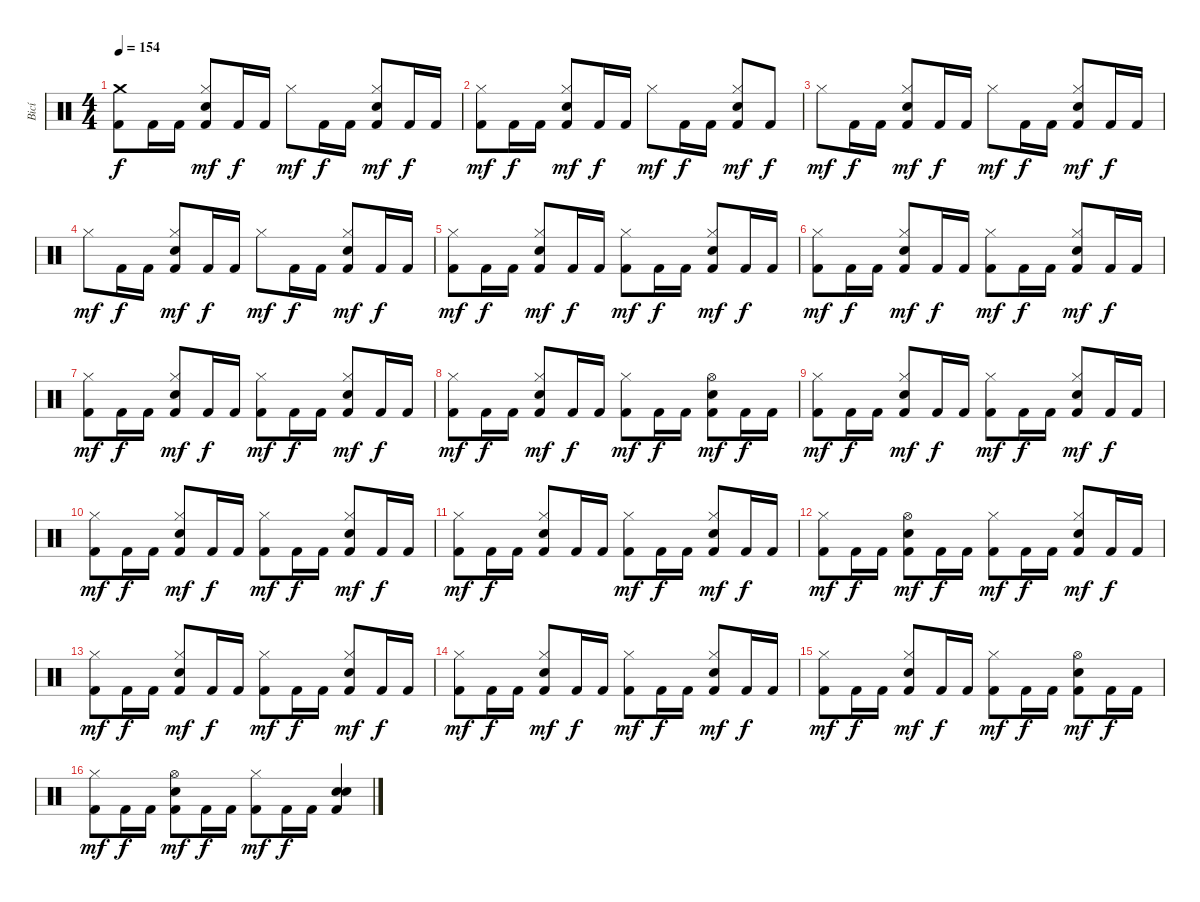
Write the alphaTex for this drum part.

\track ("Bicí" "Bicí") {instrument percussion}
\staff {score}
\articulation defaults
\ts (4 4)
\tempo 154
\clef neutral
\ks c
("Crash medium (hit)" "Kick (hit) 2").8{dy f} "Kick (hit) 2".16 "Kick (hit) 2".16 ("Hi-Hat (closed)" "Kick (hit) 2" "Electric Snare (hit)").8{dy mf} "Kick (hit) 2".16{dy f} "Kick (hit) 2".16 "Hi-Hat (closed)".8{dy mf} "Kick (hit) 2".16{dy f} "Kick (hit) 2".16 ("Hi-Hat (closed)" "Kick (hit) 2" "Electric Snare (hit)").8{dy mf} "Kick (hit) 2".16{dy f} "Kick (hit) 2".16 |
("Hi-Hat (closed)" "Kick (hit) 2").8{dy mf} "Kick (hit) 2".16{dy f} "Kick (hit) 2".16 ("Hi-Hat (closed)" "Kick (hit) 2" "Electric Snare (hit)").8{dy mf} "Kick (hit) 2".16{dy f} "Kick (hit) 2".16 "Hi-Hat (closed)".8{dy mf} "Kick (hit) 2".16{dy f} "Kick (hit) 2".16 ("Hi-Hat (closed)" "Kick (hit) 2" "Electric Snare (hit)").8{dy mf} "Kick (hit) 2".8{dy f} |
"Hi-Hat (closed)".8{dy mf} "Kick (hit) 2".16{dy f} "Kick (hit) 2".16 ("Hi-Hat (closed)" "Kick (hit) 2" "Electric Snare (hit)").8{dy mf} "Kick (hit) 2".16{dy f} "Kick (hit) 2".16 "Hi-Hat (closed)".8{dy mf} "Kick (hit) 2".16{dy f} "Kick (hit) 2".16 ("Hi-Hat (closed)" "Kick (hit) 2" "Electric Snare (hit)").8{dy mf} "Kick (hit) 2".16{dy f} "Kick (hit) 2".16 |
"Hi-Hat (closed)".8{dy mf} "Kick (hit) 2".16{dy f} "Kick (hit) 2".16 ("Hi-Hat (closed)" "Kick (hit) 2" "Electric Snare (hit)").8{dy mf} "Kick (hit) 2".16{dy f} "Kick (hit) 2".16 "Hi-Hat (closed)".8{dy mf} "Kick (hit) 2".16{dy f} "Kick (hit) 2".16 ("Hi-Hat (closed)" "Kick (hit) 2" "Electric Snare (hit)").8{dy mf} "Kick (hit) 2".16{dy f} "Kick (hit) 2".16 |
("Hi-Hat (closed)" "Kick (hit) 2").8{dy mf} "Kick (hit) 2".16{dy f} "Kick (hit) 2".16 ("Hi-Hat (closed)" "Kick (hit) 2" "Electric Snare (hit)").8{dy mf} "Kick (hit) 2".16{dy f} "Kick (hit) 2".16 ("Hi-Hat (closed)" "Kick (hit) 2").8{dy mf} "Kick (hit) 2".16{dy f} "Kick (hit) 2".16 ("Hi-Hat (closed)" "Kick (hit) 2" "Electric Snare (hit)").8{dy mf} "Kick (hit) 2".16{dy f} "Kick (hit) 2".16 |
("Hi-Hat (closed)" "Kick (hit) 2").8{dy mf} "Kick (hit) 2".16{dy f} "Kick (hit) 2".16 ("Hi-Hat (closed)" "Kick (hit) 2" "Electric Snare (hit)").8{dy mf} "Kick (hit) 2".16{dy f} "Kick (hit) 2".16 ("Hi-Hat (closed)" "Kick (hit) 2").8{dy mf} "Kick (hit) 2".16{dy f} "Kick (hit) 2".16 ("Hi-Hat (closed)" "Kick (hit) 2" "Electric Snare (hit)").8{dy mf} "Kick (hit) 2".16{dy f} "Kick (hit) 2".16 |
("Hi-Hat (closed)" "Kick (hit) 2").8{dy mf} "Kick (hit) 2".16{dy f} "Kick (hit) 2".16 ("Hi-Hat (closed)" "Kick (hit) 2" "Electric Snare (hit)").8{dy mf} "Kick (hit) 2".16{dy f} "Kick (hit) 2".16 ("Hi-Hat (closed)" "Kick (hit) 2").8{dy mf} "Kick (hit) 2".16{dy f} "Kick (hit) 2".16 ("Hi-Hat (closed)" "Kick (hit) 2" "Electric Snare (hit)").8{dy mf} "Kick (hit) 2".16{dy f} "Kick (hit) 2".16 |
("Hi-Hat (closed)" "Kick (hit) 2").8{dy mf} "Kick (hit) 2".16{dy f} "Kick (hit) 2".16 ("Hi-Hat (closed)" "Kick (hit) 2" "Electric Snare (hit)").8{dy mf} "Kick (hit) 2".16{dy f} "Kick (hit) 2".16 ("Hi-Hat (closed)" "Kick (hit) 2").8{dy mf} "Kick (hit) 2".16{dy f} "Kick (hit) 2".16 ("Hi-Hat (open)" "Kick (hit) 2" "Electric Snare (hit)").8{dy mf} "Kick (hit) 2".16{dy f} "Kick (hit) 2".16 |
("Hi-Hat (closed)" "Kick (hit) 2").8{dy mf} "Kick (hit) 2".16{dy f} "Kick (hit) 2".16 ("Hi-Hat (closed)" "Kick (hit) 2" "Electric Snare (hit)").8{dy mf} "Kick (hit) 2".16{dy f} "Kick (hit) 2".16 ("Hi-Hat (closed)" "Kick (hit) 2").8{dy mf} "Kick (hit) 2".16{dy f} "Kick (hit) 2".16 ("Hi-Hat (closed)" "Kick (hit) 2" "Electric Snare (hit)").8{dy mf} "Kick (hit) 2".16{dy f} "Kick (hit) 2".16 |
("Hi-Hat (closed)" "Kick (hit) 2").8{dy mf} "Kick (hit) 2".16{dy f} "Kick (hit) 2".16 ("Hi-Hat (closed)" "Kick (hit) 2" "Electric Snare (hit)").8{dy mf} "Kick (hit) 2".16{dy f} "Kick (hit) 2".16 ("Hi-Hat (closed)" "Kick (hit) 2").8{dy mf} "Kick (hit) 2".16{dy f} "Kick (hit) 2".16 ("Hi-Hat (closed)" "Kick (hit) 2" "Electric Snare (hit)").8{dy mf} "Kick (hit) 2".16{dy f} "Kick (hit) 2".16 |
("Hi-Hat (closed)" "Kick (hit) 2").8{dy mf} "Kick (hit) 2".16{dy f} "Kick (hit) 2".16 ("Hi-Hat (closed)" "Kick (hit) 2" "Electric Snare (hit)").8 "Kick (hit) 2".16 "Kick (hit) 2".16 ("Hi-Hat (closed)" "Kick (hit) 2").8{dy mf} "Kick (hit) 2".16{dy f} "Kick (hit) 2".16 ("Hi-Hat (closed)" "Kick (hit) 2" "Electric Snare (hit)").8{dy mf} "Kick (hit) 2".16{dy f} "Kick (hit) 2".16 |
("Hi-Hat (closed)" "Kick (hit) 2").8{dy mf} "Kick (hit) 2".16{dy f} "Kick (hit) 2".16 ("Hi-Hat (open)" "Kick (hit) 2" "Electric Snare (hit)").8{dy mf} "Kick (hit) 2".16{dy f} "Kick (hit) 2".16 ("Hi-Hat (closed)" "Kick (hit) 2").8{dy mf} "Kick (hit) 2".16{dy f} "Kick (hit) 2".16 ("Hi-Hat (closed)" "Kick (hit) 2" "Electric Snare (hit)").8{dy mf} "Kick (hit) 2".16{dy f} "Kick (hit) 2".16 |
("Hi-Hat (closed)" "Kick (hit) 2").8{dy mf} "Kick (hit) 2".16{dy f} "Kick (hit) 2".16 ("Hi-Hat (closed)" "Kick (hit) 2" "Electric Snare (hit)").8{dy mf} "Kick (hit) 2".16{dy f} "Kick (hit) 2".16 ("Hi-Hat (closed)" "Kick (hit) 2").8{dy mf} "Kick (hit) 2".16{dy f} "Kick (hit) 2".16 ("Hi-Hat (closed)" "Kick (hit) 2" "Electric Snare (hit)").8{dy mf} "Kick (hit) 2".16{dy f} "Kick (hit) 2".16 |
("Hi-Hat (closed)" "Kick (hit) 2").8{dy mf} "Kick (hit) 2".16{dy f} "Kick (hit) 2".16 ("Hi-Hat (closed)" "Kick (hit) 2" "Electric Snare (hit)").8{dy mf} "Kick (hit) 2".16{dy f} "Kick (hit) 2".16 ("Hi-Hat (closed)" "Kick (hit) 2").8{dy mf} "Kick (hit) 2".16{dy f} "Kick (hit) 2".16 ("Hi-Hat (closed)" "Kick (hit) 2" "Electric Snare (hit)").8{dy mf} "Kick (hit) 2".16{dy f} "Kick (hit) 2".16 |
("Hi-Hat (closed)" "Kick (hit) 2").8{dy mf} "Kick (hit) 2".16{dy f} "Kick (hit) 2".16 ("Hi-Hat (closed)" "Kick (hit) 2" "Electric Snare (hit)").8{dy mf} "Kick (hit) 2".16{dy f} "Kick (hit) 2".16 ("Hi-Hat (closed)" "Kick (hit) 2").8{dy mf} "Kick (hit) 2".16{dy f} "Kick (hit) 2".16 ("Hi-Hat (open)" "Kick (hit) 2" "Electric Snare (hit)").8{dy mf} "Kick (hit) 2".16{dy f} "Kick (hit) 2".16 |
("Hi-Hat (closed)" "Kick (hit) 2").8{dy mf} "Kick (hit) 2".16{dy f} "Kick (hit) 2".16 ("Hi-Hat (open)" "Kick (hit) 2" "Electric Snare (hit)").8{dy mf} "Kick (hit) 2".16{dy f} "Kick (hit) 2".16 ("Hi-Hat (closed)" "Kick (hit) 2").8{dy mf} "Kick (hit) 2".16{dy f} "Kick (hit) 2".16 ("Snare (hit) 2" "Kick (hit) 2" "Electric Snare (hit)").4
